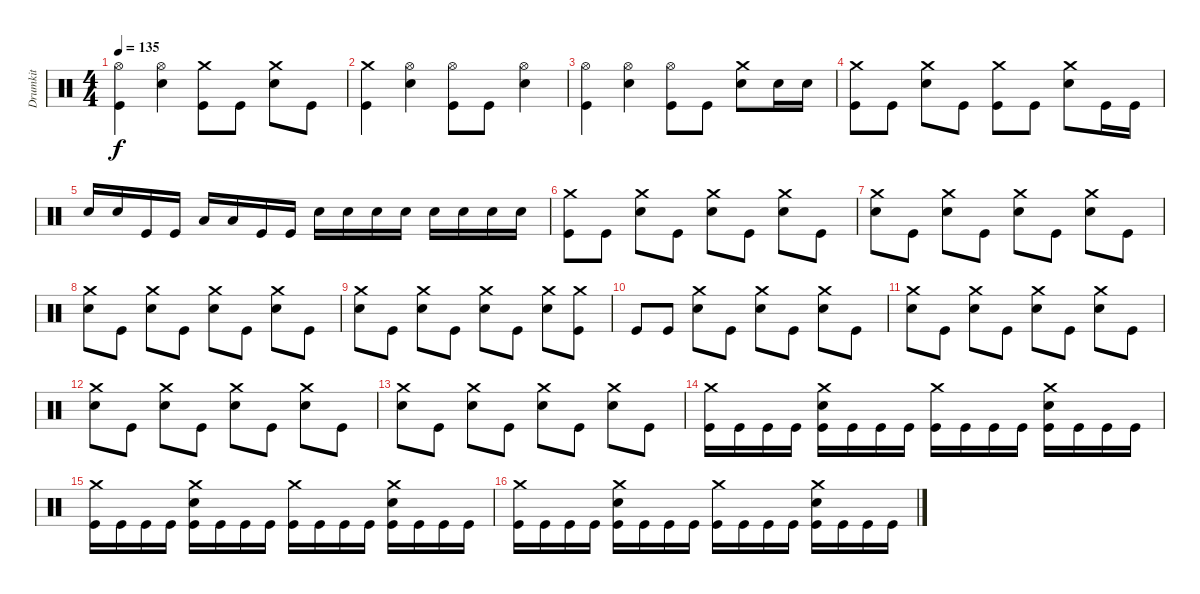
\track ("Drumkit" "Drumkit") {instrument percussion}
\staff {score}
\articulation defaults
\ts (4 4)
\tempo 135
\clef neutral
\ks c
("Kick (hit)" "Hi-Hat (open)").4{dy f} ("Snare (hit) 2" "Hi-Hat (open)").4 ("Kick (hit)" "Crash medium (hit)").8 "Kick (hit)".8 ("Snare (hit) 2" "Crash medium (hit)").8 "Kick (hit)".8 |
("Crash medium (hit)" "Kick (hit)").4 ("Snare (hit) 2" "Hi-Hat (open)").4 ("Kick (hit)" "Hi-Hat (open)").8 "Kick (hit)".8 ("Snare (hit) 2" "Hi-Hat (open)").4 |
("Kick (hit)" "Hi-Hat (open)").4 ("Snare (hit) 2" "Hi-Hat (open)").4 ("Kick (hit)" "Hi-Hat (open)").8 "Kick (hit)".8 ("Snare (hit) 2" "Crash medium (hit)").8 "Snare (hit) 2".16 "Snare (hit) 2".16 |
("Kick (hit)" "Crash medium (hit)").8 "Kick (hit)".8 ("Snare (hit) 2" "Crash medium (hit)").8 "Kick (hit)".8 ("Kick (hit)" "Crash medium (hit)").8 "Kick (hit)".8 ("Snare (hit) 2" "Crash medium (hit)").8 "Kick (hit)".16 "Kick (hit)".16 |
"Snare (hit) 2".16 "Snare (hit) 2".16 "Kick (hit)".16 "Kick (hit)".16 "Low Tom (hit)".16 "Low Tom (hit)".16 "Kick (hit)".16 "Kick (hit)".16 "Snare (hit) 2".16 "Snare (hit) 2".16 "Snare (hit) 2".16 "Snare (hit) 2".16 "Snare (hit) 2".16 "Snare (hit) 2".16 "Snare (hit) 2".16 "Snare (hit) 2".16 |
("Kick (hit)" "Crash medium (hit)").8 "Kick (hit)".8 ("Snare (hit) 2" "Crash medium (hit)").8 "Kick (hit)".8 ("Snare (hit) 2" "Crash medium (hit)").8 "Kick (hit)".8 ("Snare (hit) 2" "Crash medium (hit)").8 "Kick (hit)".8 |
("Snare (hit) 2" "Crash medium (hit)").8 "Kick (hit)".8 ("Snare (hit) 2" "Crash medium (hit)").8 "Kick (hit)".8 ("Snare (hit) 2" "Crash medium (hit)").8 "Kick (hit)".8 ("Snare (hit) 2" "Crash medium (hit)").8 "Kick (hit)".8 |
("Snare (hit) 2" "Crash medium (hit)").8 "Kick (hit)".8 ("Snare (hit) 2" "Crash medium (hit)").8 "Kick (hit)".8 ("Snare (hit) 2" "Crash medium (hit)").8 "Kick (hit)".8 ("Snare (hit) 2" "Crash medium (hit)").8 "Kick (hit)".8 |
("Snare (hit) 2" "Crash medium (hit)").8 "Kick (hit)".8 ("Snare (hit) 2" "Crash medium (hit)").8 "Kick (hit)".8 ("Snare (hit) 2" "Crash medium (hit)").8 "Kick (hit)".8 ("Snare (hit) 2" "Crash medium (hit)").8 ("Kick (hit)" "Crash medium (hit)").8 |
"Kick (hit)".8 "Kick (hit)".8 ("Snare (hit) 2" "Crash medium (hit)").8 "Kick (hit)".8 ("Snare (hit) 2" "Crash medium (hit)").8 "Kick (hit)".8 ("Snare (hit) 2" "Crash medium (hit)").8 "Kick (hit)".8 |
("Snare (hit) 2" "Crash medium (hit)").8 "Kick (hit)".8 ("Snare (hit) 2" "Crash medium (hit)").8 "Kick (hit)".8 ("Snare (hit) 2" "Crash medium (hit)").8 "Kick (hit)".8 ("Snare (hit) 2" "Crash medium (hit)").8 "Kick (hit)".8 |
("Snare (hit) 2" "Crash medium (hit)").8 "Kick (hit)".8 ("Snare (hit) 2" "Crash medium (hit)").8 "Kick (hit)".8 ("Snare (hit) 2" "Crash medium (hit)").8 "Kick (hit)".8 ("Snare (hit) 2" "Crash medium (hit)").8 "Kick (hit)".8 |
("Snare (hit) 2" "Crash medium (hit)").8 "Kick (hit)".8 ("Snare (hit) 2" "Crash medium (hit)").8 "Kick (hit)".8 ("Snare (hit) 2" "Crash medium (hit)").8 "Kick (hit)".8 ("Snare (hit) 2" "Crash medium (hit)").8 "Kick (hit)".8 |
("Kick (hit)" "Crash medium (hit)").16 "Kick (hit)".16 "Kick (hit)".16 "Kick (hit)".16 ("Snare (hit) 2" "Crash medium (hit)" "Kick (hit)").16 "Kick (hit)".16 "Kick (hit)".16 "Kick (hit)".16 ("Kick (hit)" "Crash medium (hit)").16 "Kick (hit)".16 "Kick (hit)".16 "Kick (hit)".16 ("Snare (hit) 2" "Crash medium (hit)" "Kick (hit)").16 "Kick (hit)".16 "Kick (hit)".16 "Kick (hit)".16 |
("Kick (hit)" "Crash medium (hit)").16 "Kick (hit)".16 "Kick (hit)".16 "Kick (hit)".16 ("Snare (hit) 2" "Crash medium (hit)" "Kick (hit)").16 "Kick (hit)".16 "Kick (hit)".16 "Kick (hit)".16 ("Kick (hit)" "Crash medium (hit)").16 "Kick (hit)".16 "Kick (hit)".16 "Kick (hit)".16 ("Snare (hit) 2" "Crash medium (hit)" "Kick (hit)").16 "Kick (hit)".16 "Kick (hit)".16 "Kick (hit)".16 |
("Kick (hit)" "Crash medium (hit)").16 "Kick (hit)".16 "Kick (hit)".16 "Kick (hit)".16 ("Snare (hit) 2" "Crash medium (hit)" "Kick (hit)").16 "Kick (hit)".16 "Kick (hit)".16 "Kick (hit)".16 ("Kick (hit)" "Crash medium (hit)").16 "Kick (hit)".16 "Kick (hit)".16 "Kick (hit)".16 ("Snare (hit) 2" "Crash medium (hit)" "Kick (hit)").16 "Kick (hit)".16 "Kick (hit)".16 "Kick (hit)".16
